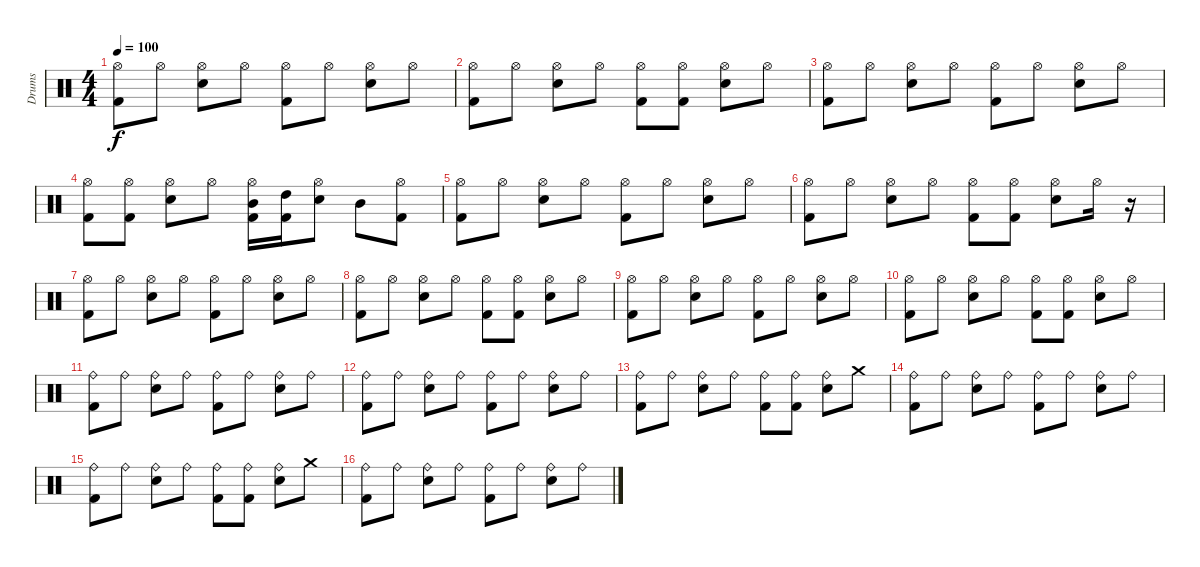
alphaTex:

\track ("Drums" "Drums") {instrument percussion}
\staff {score}
\articulation defaults
\ts (4 4)
\tempo 100
\clef neutral
\ks c
("Hi-Hat (open)" "Kick (hit) 2").8{dy f} "Hi-Hat (open)".8 ("Hi-Hat (open)" "Electric Snare (hit)").8 "Hi-Hat (open)".8 ("Hi-Hat (open)" "Kick (hit) 2").8 "Hi-Hat (open)".8 ("Hi-Hat (open)" "Electric Snare (hit)").8 "Hi-Hat (open)".8 |
("Hi-Hat (open)" "Kick (hit) 2").8 "Hi-Hat (open)".8 ("Hi-Hat (open)" "Electric Snare (hit)").8 "Hi-Hat (open)".8 ("Hi-Hat (open)" "Kick (hit) 2").8 ("Hi-Hat (open)" "Kick (hit) 2").8 ("Hi-Hat (open)" "Electric Snare (hit)").8 "Hi-Hat (open)".8 |
("Hi-Hat (open)" "Kick (hit) 2").8 "Hi-Hat (open)".8 ("Hi-Hat (open)" "Electric Snare (hit)").8 "Hi-Hat (open)".8 ("Hi-Hat (open)" "Kick (hit) 2").8 "Hi-Hat (open)".8 ("Hi-Hat (open)" "Electric Snare (hit)").8 "Hi-Hat (open)".8 |
("Hi-Hat (open)" "Kick (hit) 2").8 ("Hi-Hat (open)" "Kick (hit) 2").8 ("Hi-Hat (open)" "Electric Snare (hit)").8 "Hi-Hat (open)".8 ("Hi-Hat (open)" "Mid Tom (hit)" "Kick (hit) 2").16 ("High Tom (hit)" "Kick (hit) 2").16 ("Hi-Hat (open)" "Electric Snare (hit)").8 "Mid Tom (hit)".8 ("Hi-Hat (open)" "Kick (hit) 2").8 |
("Hi-Hat (open)" "Kick (hit) 2").8 "Hi-Hat (open)".8 ("Hi-Hat (open)" "Electric Snare (hit)").8 "Hi-Hat (open)".8 ("Hi-Hat (open)" "Kick (hit) 2").8 "Hi-Hat (open)".8 ("Hi-Hat (open)" "Electric Snare (hit)").8 "Hi-Hat (open)".8 |
("Hi-Hat (open)" "Kick (hit) 2").8 "Hi-Hat (open)".8 ("Hi-Hat (open)" "Electric Snare (hit)").8 "Hi-Hat (open)".8 ("Hi-Hat (open)" "Kick (hit) 2").8 ("Hi-Hat (open)" "Kick (hit) 2").8 ("Hi-Hat (open)" "Electric Snare (hit)").8 "Hi-Hat (open)".16 r.16 |
("Hi-Hat (open)" "Kick (hit) 2").8 "Hi-Hat (open)".8 ("Hi-Hat (open)" "Electric Snare (hit)").8 "Hi-Hat (open)".8 ("Hi-Hat (open)" "Kick (hit) 2").8 "Hi-Hat (open)".8 ("Hi-Hat (open)" "Electric Snare (hit)").8 "Hi-Hat (open)".8 |
("Hi-Hat (open)" "Kick (hit) 2").8 "Hi-Hat (open)".8 ("Hi-Hat (open)" "Electric Snare (hit)").8 "Hi-Hat (open)".8 ("Hi-Hat (open)" "Kick (hit) 2").8 ("Hi-Hat (open)" "Kick (hit) 2").8 ("Hi-Hat (open)" "Electric Snare (hit)").8 "Hi-Hat (open)".8 |
("Hi-Hat (open)" "Kick (hit) 2").8 "Hi-Hat (open)".8 ("Hi-Hat (open)" "Electric Snare (hit)").8 "Hi-Hat (open)".8 ("Hi-Hat (open)" "Kick (hit) 2").8 "Hi-Hat (open)".8 ("Hi-Hat (open)" "Electric Snare (hit)").8 "Hi-Hat (open)".8 |
("Hi-Hat (open)" "Kick (hit) 2").8 "Hi-Hat (open)".8 ("Hi-Hat (open)" "Electric Snare (hit)").8 "Hi-Hat (open)".8 ("Hi-Hat (open)" "Kick (hit) 2").8 ("Hi-Hat (open)" "Kick (hit) 2").8 ("Hi-Hat (open)" "Electric Snare (hit)").8 "Hi-Hat (open)".8 |
("Ride (bell)" "Kick (hit) 2").8 "Ride (bell)".8 ("Ride (bell)" "Electric Snare (hit)").8 "Ride (bell)".8 ("Ride (bell)" "Kick (hit) 2").8 "Ride (bell)".8 ("Ride (bell)" "Electric Snare (hit)").8 "Ride (bell)".8 |
("Ride (bell)" "Kick (hit) 2").8 "Ride (bell)".8 ("Ride (bell)" "Electric Snare (hit)").8 "Ride (bell)".8 ("Ride (bell)" "Kick (hit) 2").8 "Ride (bell)".8 ("Ride (bell)" "Electric Snare (hit)").8 "Ride (bell)".8 |
("Ride (bell)" "Kick (hit) 2").8 "Ride (bell)".8 ("Ride (bell)" "Electric Snare (hit)").8 "Ride (bell)".8 ("Ride (bell)" "Kick (hit) 2").8 ("Ride (bell)" "Kick (hit) 2").8 ("Ride (bell)" "Electric Snare (hit)").8 "Crash medium (hit)".8 |
("Ride (bell)" "Kick (hit) 2").8 "Ride (bell)".8 ("Ride (bell)" "Electric Snare (hit)").8 "Ride (bell)".8 ("Ride (bell)" "Kick (hit) 2").8 "Ride (bell)".8 ("Ride (bell)" "Electric Snare (hit)").8 "Ride (bell)".8 |
("Ride (bell)" "Kick (hit) 2").8 "Ride (bell)".8 ("Ride (bell)" "Electric Snare (hit)").8 "Ride (bell)".8 ("Ride (bell)" "Kick (hit) 2").8 ("Ride (bell)" "Kick (hit) 2").8 ("Ride (bell)" "Electric Snare (hit)").8 "Crash medium (hit)".8 |
("Ride (bell)" "Kick (hit) 2").8 "Ride (bell)".8 ("Ride (bell)" "Electric Snare (hit)").8 "Ride (bell)".8 ("Ride (bell)" "Kick (hit) 2").8 "Ride (bell)".8 ("Ride (bell)" "Electric Snare (hit)").8 "Ride (bell)".8
